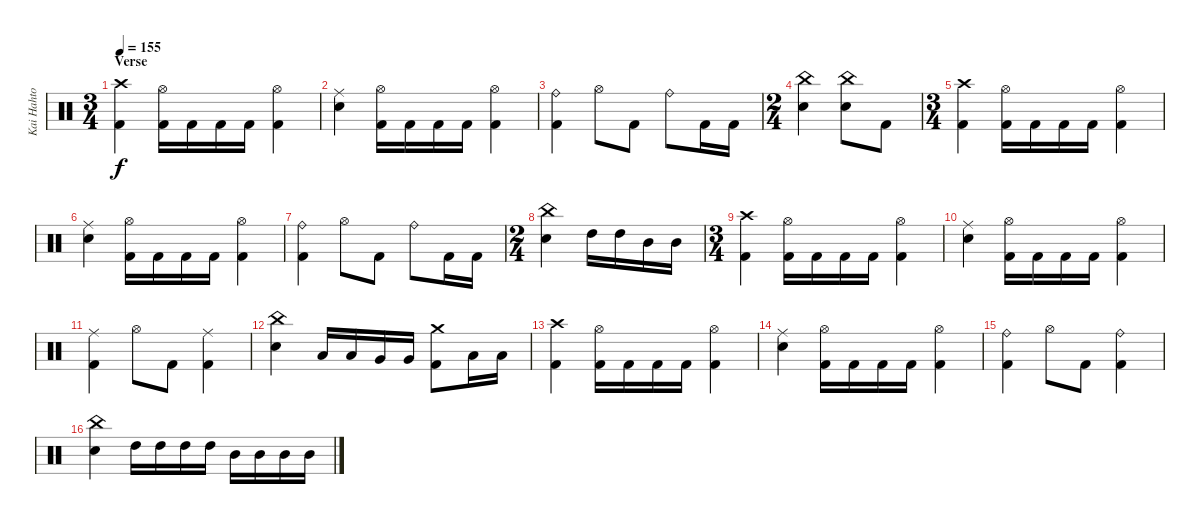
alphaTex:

\track ("Kai Hahto" "Kai Hahto") {instrument percussion}
\staff {score}
\articulation defaults
\ts (3 4)
\section ("" "Verse")
\tempo 155
\clef neutral
\ks c
("Crash high (hit)" "Kick (hit) 2").4{dy f} ("Hi-Hat (open)" "Kick (hit) 2").16 "Kick (hit) 2".16 "Kick (hit) 2".16 "Kick (hit) 2".16 ("Hi-Hat (open)" "Kick (hit) 2").4 |
("Ride (middle)" "Electric Snare (hit)").4 ("Hi-Hat (open)" "Kick (hit) 2").16 "Kick (hit) 2".16 "Kick (hit) 2".16 "Kick (hit) 2".16 ("Hi-Hat (open)" "Kick (hit) 2").4 |
("Ride (bell)" "Kick (hit) 2").4 "Hi-Hat (open)".8 "Kick (hit) 2".8 "Ride (bell)".8 "Kick (hit) 2".16 "Kick (hit) 2".16 |
\ts (2 4)
("China (hit)" "Electric Snare (hit)").4 ("China (hit)" "Electric Snare (hit)").8 "Kick (hit) 2".8 |
\ts (3 4)
("Crash high (hit)" "Kick (hit) 2").4 ("Hi-Hat (open)" "Kick (hit) 2").16 "Kick (hit) 2".16 "Kick (hit) 2".16 "Kick (hit) 2".16 ("Hi-Hat (open)" "Kick (hit) 2").4 |
("Ride (middle)" "Electric Snare (hit)").4 ("Hi-Hat (open)" "Kick (hit) 2").16 "Kick (hit) 2".16 "Kick (hit) 2".16 "Kick (hit) 2".16 ("Hi-Hat (open)" "Kick (hit) 2").4 |
("Ride (bell)" "Kick (hit) 2").4 "Hi-Hat (open)".8 "Kick (hit) 2".8 "Ride (bell)".8 "Kick (hit) 2".16 "Kick (hit) 2".16 |
\ts (2 4)
("China (hit)" "Electric Snare (hit)").4 "High Tom (hit)".16 "High Tom (hit)".16 "Mid Tom (hit)".16 "Mid Tom (hit)".16 |
\ts (3 4)
("Crash high (hit)" "Kick (hit) 2").4 ("Hi-Hat (open)" "Kick (hit) 2").16 "Kick (hit) 2".16 "Kick (hit) 2".16 "Kick (hit) 2".16 ("Hi-Hat (open)" "Kick (hit) 2").4 |
("Ride (middle)" "Electric Snare (hit)").4 ("Hi-Hat (open)" "Kick (hit) 2").16 "Kick (hit) 2".16 "Kick (hit) 2".16 "Kick (hit) 2".16 ("Hi-Hat (open)" "Kick (hit) 2").4 |
("Ride (middle)" "Kick (hit) 2").4 "Hi-Hat (open)".8 "Kick (hit) 2".8 ("Ride (middle)" "Kick (hit) 2").4 |
("China (hit)" "Electric Snare (hit)").4 "Low Tom (hit)".16 "Low Tom (hit)".16 "Very Low Tom (hit)".16 "Very Low Tom (hit)".16 ("Crash medium (hit)" "Kick (hit) 2").8 "Low Floor Tom (hit)".16 "Low Floor Tom (hit)".16 |
("Crash high (hit)" "Kick (hit) 2").4 ("Hi-Hat (open)" "Kick (hit) 2").16 "Kick (hit) 2".16 "Kick (hit) 2".16 "Kick (hit) 2".16 ("Hi-Hat (open)" "Kick (hit) 2").4 |
("Ride (middle)" "Electric Snare (hit)").4 ("Hi-Hat (open)" "Kick (hit) 2").16 "Kick (hit) 2".16 "Kick (hit) 2".16 "Kick (hit) 2".16 ("Hi-Hat (open)" "Kick (hit) 2").4 |
("Ride (bell)" "Kick (hit) 2").4 "Hi-Hat (open)".8 "Kick (hit) 2".8 ("Ride (bell)" "Kick (hit) 2").4 |
("China (hit)" "Electric Snare (hit)").4 "High Tom (hit)".16 "High Tom (hit)".16 "High Tom (hit)".16 "High Tom (hit)".16 "Mid Tom (hit)".16 "Mid Tom (hit)".16 "Mid Tom (hit)".16 "Mid Tom (hit)".16
